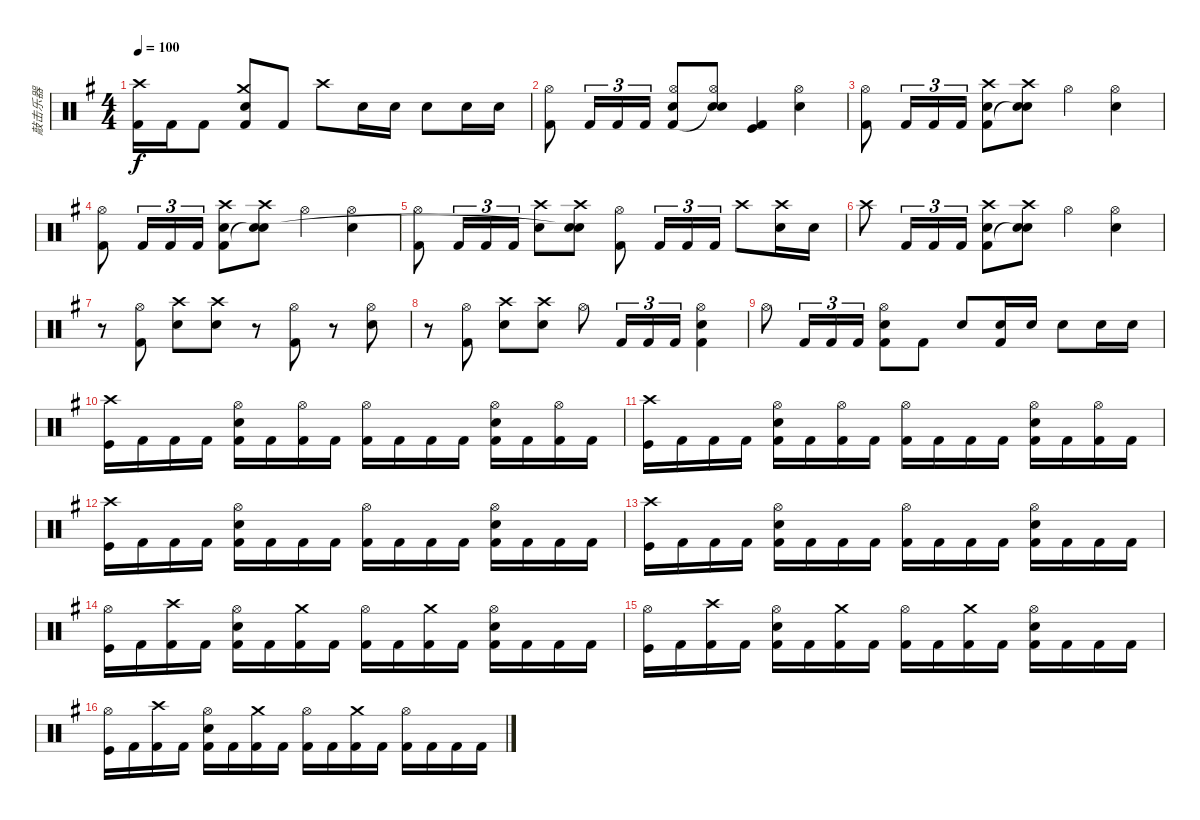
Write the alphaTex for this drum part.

\track ("敲击乐器" "敲击乐器") {instrument percussion}
\staff {score}
\articulation defaults
\ts (4 4)
\tempo 100
\clef neutral
\ks eminor
("Crash high (hit)" "Kick (hit) 2").16{dy f} "Kick (hit) 2".16 "Kick (hit) 2".8 ("Crash medium (hit)" "Snare (hit) 2" "Kick (hit) 2").8 "Kick (hit) 2".8 "Crash high (hit)".8 "Snare (hit) 2".16 "Snare (hit) 2".16 "Snare (hit) 2".8 "Snare (hit) 2".16 "Snare (hit) 2".16 |
("Hi-Hat (open)" "Kick (hit) 2").8 "Kick (hit) 2".16{tu (3 2)} "Kick (hit) 2".16{tu (3 2)} "Kick (hit) 2".16{tu (3 2)} ("Hi-Hat (open)" "Electric Snare (hit)" "Kick (hit) 2").8 ("Hi-Hat (open)" "Electric Snare (hit)" "Snare (hit)"{t}).8 ("Kick (hit)" "Kick (hit) 2").4 ("Hi-Hat (open)" "Snare (hit) 2").4 |
("Hi-Hat (open)" "Kick (hit) 2").8 "Kick (hit) 2".16{tu (3 2)} "Kick (hit) 2".16{tu (3 2)} "Kick (hit) 2".16{tu (3 2)} ("Crash high (hit)" "Snare (hit) 2" "Kick (hit) 2").8 ("Crash high (hit)" "Snare (hit) 2" "Snare (hit)"{t}).8 "Hi-Hat (open)".4 ("Hi-Hat (open)" "Snare (hit) 2").4 |
("Hi-Hat (open)" "Kick (hit) 2").8 "Kick (hit) 2".16{tu (3 2)} "Kick (hit) 2".16{tu (3 2)} "Kick (hit) 2".16{tu (3 2)} ("Crash high (hit)" "Snare (hit) 2" "Kick (hit) 2").8 ("Crash high (hit)" "Snare (hit) 2" "Snare (hit)"{t}).8 "Hi-Hat (open)".4 ("Hi-Hat (open)" "Snare (hit) 2").4 |
("Hi-Hat (open)" "Kick (hit) 2").8 "Kick (hit) 2".16{tu (3 2)} "Kick (hit) 2".16{tu (3 2)} "Kick (hit) 2".16{tu (3 2)} ("Crash high (hit)" "Snare (hit) 2").8 ("Crash high (hit)" "Snare (hit) 2" "Snare (hit)"{t}).8 ("Hi-Hat (open)" "Kick (hit) 2").8 "Kick (hit) 2".16{tu (3 2)} "Kick (hit) 2".16{tu (3 2)} "Kick (hit) 2".16{tu (3 2)} "Crash high (hit)".8 ("Crash high (hit)" "Snare (hit) 2").16 "Snare (hit) 2".16 |
"Crash high (hit)".8 "Kick (hit) 2".16{tu (3 2)} "Kick (hit) 2".16{tu (3 2)} "Kick (hit) 2".16{tu (3 2)} ("Crash high (hit)" "Snare (hit) 2" "Kick (hit) 2").8 ("Crash high (hit)" "Snare (hit) 2" "Snare (hit)"{t}).8 "Hi-Hat (open)".4 ("Hi-Hat (open)" "Snare (hit) 2").4 |
r.8 ("Hi-Hat (open)" "Kick (hit) 2").8 ("Crash high (hit)" "Snare (hit) 2").8 ("Crash high (hit)" "Snare (hit) 2").8 r.8 ("Hi-Hat (open)" "Kick (hit) 2").8 r.8 ("Hi-Hat (open)" "Snare (hit) 2").8 |
r.8 ("Hi-Hat (open)" "Kick (hit) 2").8 ("Crash high (hit)" "Snare (hit) 2").8 ("Crash high (hit)" "Snare (hit) 2").8 "Hi-Hat (open)".8 "Kick (hit) 2".16{tu (3 2)} "Kick (hit) 2".16{tu (3 2)} "Kick (hit) 2".16{tu (3 2)} ("Hi-Hat (open)" "Snare (hit) 2" "Kick (hit) 2").4 |
"Hi-Hat (open)".8 "Kick (hit) 2".16{tu (3 2)} "Kick (hit) 2".16{tu (3 2)} "Kick (hit) 2".16{tu (3 2)} ("Hi-Hat (open)" "Snare (hit) 2" "Kick (hit) 2").8 "Kick (hit) 2".8 "Snare (hit) 2".8 ("Snare (hit) 2" "Kick (hit) 2").16 "Snare (hit) 2".16 "Snare (hit) 2".8 "Snare (hit) 2".16 "Snare (hit) 2".16 |
("Crash high (hit)" "Kick (hit)").16 "Kick (hit) 2".16 "Kick (hit) 2".16 "Kick (hit) 2".16 ("Hi-Hat (open)" "Snare (hit) 2" "Kick (hit) 2").16 "Kick (hit) 2".16 ("Hi-Hat (open)" "Kick (hit) 2").16 "Kick (hit) 2".16 ("Hi-Hat (open)" "Kick (hit) 2").16 "Kick (hit) 2".16 "Kick (hit) 2".16 "Kick (hit) 2".16 ("Hi-Hat (open)" "Snare (hit) 2" "Kick (hit) 2").16 "Kick (hit) 2".16 ("Hi-Hat (open)" "Kick (hit) 2").16 "Kick (hit) 2".16 |
("Crash high (hit)" "Kick (hit)").16 "Kick (hit) 2".16 "Kick (hit) 2".16 "Kick (hit) 2".16 ("Hi-Hat (open)" "Snare (hit) 2" "Kick (hit) 2").16 "Kick (hit) 2".16 ("Hi-Hat (open)" "Kick (hit) 2").16 "Kick (hit) 2".16 ("Hi-Hat (open)" "Kick (hit) 2").16 "Kick (hit) 2".16 "Kick (hit) 2".16 "Kick (hit) 2".16 ("Hi-Hat (open)" "Snare (hit) 2" "Kick (hit) 2").16 "Kick (hit) 2".16 ("Hi-Hat (open)" "Kick (hit) 2").16 "Kick (hit) 2".16 |
("Crash high (hit)" "Kick (hit)").16 "Kick (hit) 2".16 "Kick (hit) 2".16 "Kick (hit) 2".16 ("Hi-Hat (open)" "Snare (hit) 2" "Kick (hit) 2").16 "Kick (hit) 2".16 "Kick (hit) 2".16 "Kick (hit) 2".16 ("Hi-Hat (open)" "Kick (hit) 2").16 "Kick (hit) 2".16 "Kick (hit) 2".16 "Kick (hit) 2".16 ("Hi-Hat (open)" "Snare (hit) 2" "Kick (hit) 2").16 "Kick (hit) 2".16 "Kick (hit) 2".16 "Kick (hit) 2".16 |
("Crash high (hit)" "Kick (hit)").16 "Kick (hit) 2".16 "Kick (hit) 2".16 "Kick (hit) 2".16 ("Hi-Hat (open)" "Snare (hit) 2" "Kick (hit) 2").16 "Kick (hit) 2".16 "Kick (hit) 2".16 "Kick (hit) 2".16 ("Hi-Hat (open)" "Kick (hit) 2").16 "Kick (hit) 2".16 "Kick (hit) 2".16 "Kick (hit) 2".16 ("Hi-Hat (open)" "Snare (hit) 2" "Kick (hit) 2").16 "Kick (hit) 2".16 "Kick (hit) 2".16 "Kick (hit) 2".16 |
("Hi-Hat (open)" "Kick (hit)").16 "Kick (hit) 2".16 ("Crash high (hit)" "Kick (hit) 2").16 "Kick (hit) 2".16 ("Hi-Hat (open)" "Snare (hit) 2" "Kick (hit) 2").16 "Kick (hit) 2".16 ("Crash medium (hit)" "Kick (hit) 2").16 "Kick (hit) 2".16 ("Hi-Hat (open)" "Kick (hit) 2").16 "Kick (hit) 2".16 ("Crash medium (hit)" "Kick (hit) 2").16 "Kick (hit) 2".16 ("Hi-Hat (open)" "Snare (hit) 2" "Kick (hit) 2").16 "Kick (hit) 2".16 "Kick (hit) 2".16 "Kick (hit) 2".16 |
("Hi-Hat (open)" "Kick (hit)").16 "Kick (hit) 2".16 ("Crash high (hit)" "Kick (hit) 2").16 "Kick (hit) 2".16 ("Hi-Hat (open)" "Snare (hit) 2" "Kick (hit) 2").16 "Kick (hit) 2".16 ("Crash medium (hit)" "Kick (hit) 2").16 "Kick (hit) 2".16 ("Hi-Hat (open)" "Kick (hit) 2").16 "Kick (hit) 2".16 ("Crash medium (hit)" "Kick (hit) 2").16 "Kick (hit) 2".16 ("Hi-Hat (open)" "Snare (hit) 2" "Kick (hit) 2").16 "Kick (hit) 2".16 "Kick (hit) 2".16 "Kick (hit) 2".16 |
("Hi-Hat (open)" "Kick (hit)").16 "Kick (hit) 2".16 ("Crash high (hit)" "Kick (hit) 2").16 "Kick (hit) 2".16 ("Hi-Hat (open)" "Snare (hit) 2" "Kick (hit) 2").16 "Kick (hit) 2".16 ("Crash medium (hit)" "Kick (hit) 2").16 "Kick (hit) 2".16 ("Hi-Hat (open)" "Kick (hit) 2").16 "Kick (hit) 2".16 ("Crash medium (hit)" "Kick (hit) 2").16 "Kick (hit) 2".16 ("Hi-Hat (open)" "Kick (hit) 2").16 "Kick (hit) 2".16 "Kick (hit) 2".16 "Kick (hit) 2".16
